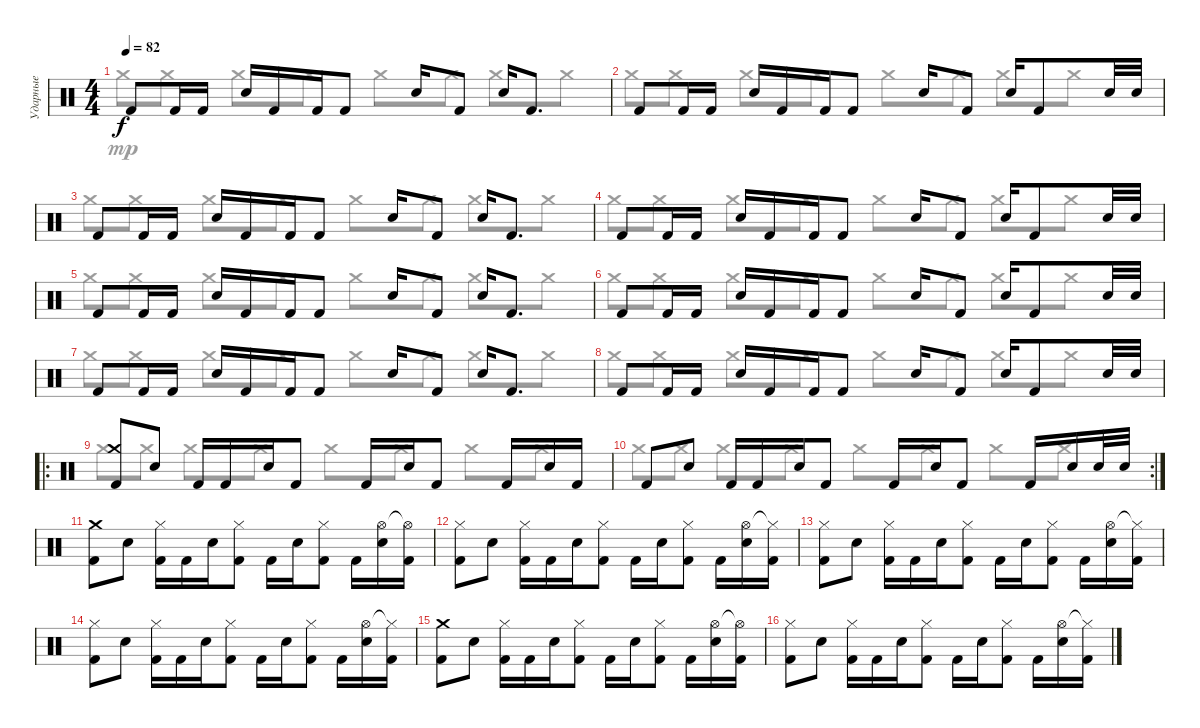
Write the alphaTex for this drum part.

\track ("Ударные" "Ударные") {instrument percussion}
\staff {score}
\articulation defaults
\voice
\ts (4 4)
\tempo 82
\clef neutral
\ks c "Kick (hit) 2".8{dy f} "Kick (hit) 2".16 "Kick (hit) 2".16 "Snare (hit) 2".16 "Kick (hit) 2".16 "Kick (hit) 2".16 "Kick (hit) 2".8 "Snare (hit) 2".16 "Kick (hit) 2".8 "Snare (hit) 2".16 "Kick (hit) 2".8{d}
|
"Kick (hit) 2".8 "Kick (hit) 2".16 "Kick (hit) 2".16 "Snare (hit) 2".16 "Kick (hit) 2".16 "Kick (hit) 2".16 "Kick (hit) 2".8 "Snare (hit) 2".16 "Kick (hit) 2".8 "Snare (hit) 2".16 "Kick (hit) 2".8 "Snare (hit) 2".32 "Snare (hit) 2".32 |
"Kick (hit) 2".8 "Kick (hit) 2".16 "Kick (hit) 2".16 "Snare (hit) 2".16 "Kick (hit) 2".16 "Kick (hit) 2".16 "Kick (hit) 2".8 "Snare (hit) 2".16 "Kick (hit) 2".8 "Snare (hit) 2".16 "Kick (hit) 2".8{d} |
"Kick (hit) 2".8 "Kick (hit) 2".16 "Kick (hit) 2".16 "Snare (hit) 2".16 "Kick (hit) 2".16 "Kick (hit) 2".16 "Kick (hit) 2".8 "Snare (hit) 2".16 "Kick (hit) 2".8 "Snare (hit) 2".16 "Kick (hit) 2".8 "Snare (hit) 2".32 "Snare (hit) 2".32 |
"Kick (hit) 2".8 "Kick (hit) 2".16 "Kick (hit) 2".16 "Snare (hit) 2".16 "Kick (hit) 2".16 "Kick (hit) 2".16 "Kick (hit) 2".8 "Snare (hit) 2".16 "Kick (hit) 2".8 "Snare (hit) 2".16 "Kick (hit) 2".8{d} |
"Kick (hit) 2".8 "Kick (hit) 2".16 "Kick (hit) 2".16 "Snare (hit) 2".16 "Kick (hit) 2".16 "Kick (hit) 2".16 "Kick (hit) 2".8 "Snare (hit) 2".16 "Kick (hit) 2".8 "Snare (hit) 2".16 "Kick (hit) 2".8 "Snare (hit) 2".32 "Snare (hit) 2".32 |
"Kick (hit) 2".8 "Kick (hit) 2".16 "Kick (hit) 2".16 "Snare (hit) 2".16 "Kick (hit) 2".16 "Kick (hit) 2".16 "Kick (hit) 2".8 "Snare (hit) 2".16 "Kick (hit) 2".8 "Snare (hit) 2".16 "Kick (hit) 2".8{d} |
"Kick (hit) 2".8 "Kick (hit) 2".16 "Kick (hit) 2".16 "Snare (hit) 2".16 "Kick (hit) 2".16 "Kick (hit) 2".16 "Kick (hit) 2".8 "Snare (hit) 2".16 "Kick (hit) 2".8 "Snare (hit) 2".16 "Kick (hit) 2".8 "Snare (hit) 2".32 "Snare (hit) 2".32 |
\ro
("Crash medium (hit)" "Kick (hit) 2").8 "Snare (hit) 2".8 "Kick (hit) 2".16 "Kick (hit) 2".16 "Snare (hit) 2".16 "Kick (hit) 2".8 "Kick (hit) 2".16 "Snare (hit) 2".16 "Kick (hit) 2".8 "Kick (hit) 2".16 "Snare (hit) 2".16 "Kick (hit) 2".16 |
\rc 2 "Kick (hit) 2".8 "Snare (hit) 2".8 "Kick (hit) 2".16 "Kick (hit) 2".16 "Snare (hit) 2".16 "Kick (hit) 2".8 "Kick (hit) 2".16 "Snare (hit) 2".16 "Kick (hit) 2".8 "Kick (hit) 2".16 "Snare (hit) 2".16 "Snare (hit) 2".32 "Snare (hit) 2".32
|
("Crash medium (hit)" "Kick (hit) 2").8 "Snare (hit) 2".8 ("Hi-Hat (closed)" "Kick (hit) 2").16 "Kick (hit) 2".16 "Snare (hit) 2".16 ("Hi-Hat (closed)" "Kick (hit) 2").8 "Kick (hit) 2".16 "Snare (hit) 2".16 ("Hi-Hat (closed)" "Kick (hit) 2").8 "Kick (hit) 2".16 ("Hi-Hat (open)" "Snare (hit) 2").16 ("Hi-Hat (open)"{t} "Kick (hit) 2").16 |
("Hi-Hat (closed)" "Kick (hit) 2").8 "Snare (hit) 2".8 ("Hi-Hat (closed)" "Kick (hit) 2").16 "Kick (hit) 2".16 "Snare (hit) 2".16 ("Hi-Hat (closed)" "Kick (hit) 2").8 "Kick (hit) 2".16 "Snare (hit) 2".16 ("Hi-Hat (closed)" "Kick (hit) 2").8 "Kick (hit) 2".16 ("Hi-Hat (open)" "Snare (hit) 2").16 ("Hi-Hat (closed)"{t} "Kick (hit) 2").16 |
("Hi-Hat (closed)" "Kick (hit) 2").8 "Snare (hit) 2".8 ("Hi-Hat (closed)" "Kick (hit) 2").16 "Kick (hit) 2".16 "Snare (hit) 2".16 ("Hi-Hat (closed)" "Kick (hit) 2").8 "Kick (hit) 2".16 "Snare (hit) 2".16 ("Hi-Hat (closed)" "Kick (hit) 2").8 "Kick (hit) 2".16 ("Hi-Hat (open)" "Snare (hit) 2").16 ("Hi-Hat (closed)"{t} "Kick (hit) 2").16 |
("Hi-Hat (closed)" "Kick (hit) 2").8 "Snare (hit) 2".8 ("Hi-Hat (closed)" "Kick (hit) 2").16 "Kick (hit) 2".16 "Snare (hit) 2".16 ("Hi-Hat (closed)" "Kick (hit) 2").8 "Kick (hit) 2".16 "Snare (hit) 2".16 ("Hi-Hat (closed)" "Kick (hit) 2").8 "Kick (hit) 2".16 ("Hi-Hat (open)" "Snare (hit) 2").16 ("Hi-Hat (closed)"{t} "Kick (hit) 2").16 |
("Crash medium (hit)" "Kick (hit) 2").8 "Snare (hit) 2".8 ("Hi-Hat (closed)" "Kick (hit) 2").16 "Kick (hit) 2".16 "Snare (hit) 2".16 ("Hi-Hat (closed)" "Kick (hit) 2").8 "Kick (hit) 2".16 "Snare (hit) 2".16 ("Hi-Hat (closed)" "Kick (hit) 2").8 "Kick (hit) 2".16 ("Hi-Hat (open)" "Snare (hit) 2").16 ("Hi-Hat (open)"{t} "Kick (hit) 2").16 |
("Hi-Hat (closed)" "Kick (hit) 2").8 "Snare (hit) 2".8 ("Hi-Hat (closed)" "Kick (hit) 2").16 "Kick (hit) 2".16 "Snare (hit) 2".16 ("Hi-Hat (closed)" "Kick (hit) 2").8 "Kick (hit) 2".16 "Snare (hit) 2".16 ("Hi-Hat (closed)" "Kick (hit) 2").8 "Kick (hit) 2".16 ("Hi-Hat (open)" "Snare (hit) 2").16 ("Hi-Hat (closed)"{t} "Kick (hit) 2").16
\voice
\clef neutral
\ottava regular
\simile none
\ks c "Crash medium (hit)".8{dy mp} "Crash medium (hit)".8 "Crash medium (hit)".8 "Crash medium (hit)".8 "Crash medium (hit)".8 "Crash medium (hit)".8 "Crash medium (hit)".8 "Crash medium (hit)".8
|
"Crash medium (hit)".8 "Crash medium (hit)".8 "Crash medium (hit)".8 "Crash medium (hit)".8 "Crash medium (hit)".8 "Crash medium (hit)".8 "Crash medium (hit)".8 "Crash medium (hit)".8 |
"Crash medium (hit)".8 "Crash medium (hit)".8 "Crash medium (hit)".8 "Crash medium (hit)".8 "Crash medium (hit)".8 "Crash medium (hit)".8 "Crash medium (hit)".8 "Crash medium (hit)".8 |
"Crash medium (hit)".8 "Crash medium (hit)".8 "Crash medium (hit)".8 "Crash medium (hit)".8 "Crash medium (hit)".8 "Crash medium (hit)".8 "Crash medium (hit)".8 "Crash medium (hit)".8 |
"Crash medium (hit)".8 "Crash medium (hit)".8 "Crash medium (hit)".8 "Crash medium (hit)".8 "Crash medium (hit)".8 "Crash medium (hit)".8 "Crash medium (hit)".8 "Crash medium (hit)".8 |
"Crash medium (hit)".8 "Crash medium (hit)".8 "Crash medium (hit)".8 "Crash medium (hit)".8 "Crash medium (hit)".8 "Crash medium (hit)".8 "Crash medium (hit)".8 "Crash medium (hit)".8 |
"Crash medium (hit)".8 "Crash medium (hit)".8 "Crash medium (hit)".8 "Crash medium (hit)".8 "Crash medium (hit)".8 "Crash medium (hit)".8 "Crash medium (hit)".8 "Crash medium (hit)".8 |
"Crash medium (hit)".8 "Crash medium (hit)".8 "Crash medium (hit)".8 "Crash medium (hit)".8 "Crash medium (hit)".8 "Crash medium (hit)".8 "Crash medium (hit)".8 "Crash medium (hit)".8 |
"Crash medium (hit)".8 "Crash medium (hit)".8 "Crash medium (hit)".8 "Crash medium (hit)".8 "Crash medium (hit)".8 "Crash medium (hit)".8 "Crash medium (hit)".8 "Crash medium (hit)".8 |
"Crash medium (hit)".8 "Crash medium (hit)".8 "Crash medium (hit)".8 "Crash medium (hit)".8 "Crash medium (hit)".8 "Crash medium (hit)".8 "Crash medium (hit)".8 "Crash medium (hit)".8 |
|
|
|
|
|
